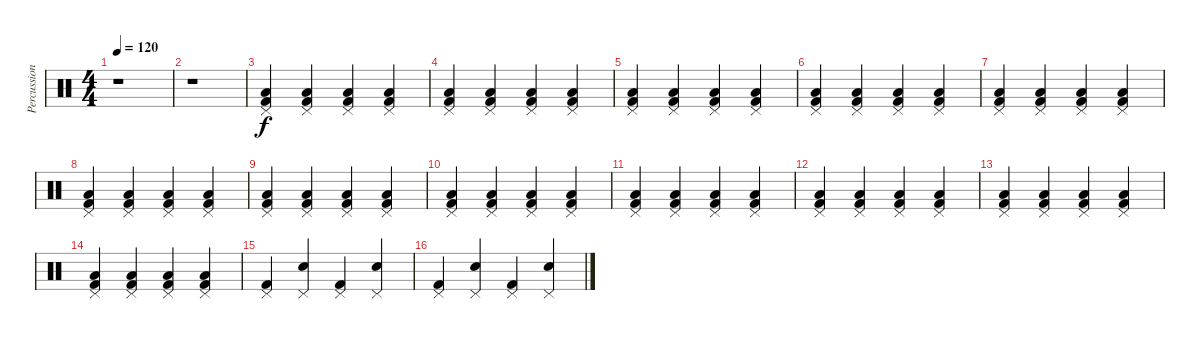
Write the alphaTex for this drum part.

\track ("Percussions" "Percussion") {instrument percussion}
\staff {score}
\articulation defaults
\ts (4 4)
\tempo 120
\clef neutral
\ks c
r.1{dy f} |
r.1 |
("Pedal Hi-Hat (hit)" "Low Floor Tom (hit)" "Kick (hit) 2").4 ("Pedal Hi-Hat (hit)" "Low Floor Tom (hit)" "Kick (hit) 2").4 ("Pedal Hi-Hat (hit)" "Low Floor Tom (hit)" "Kick (hit) 2").4 ("Pedal Hi-Hat (hit)" "Low Floor Tom (hit)" "Kick (hit) 2").4 |
("Pedal Hi-Hat (hit)" "Low Floor Tom (hit)" "Kick (hit) 2").4 ("Pedal Hi-Hat (hit)" "Low Floor Tom (hit)" "Kick (hit) 2").4 ("Pedal Hi-Hat (hit)" "Low Floor Tom (hit)" "Kick (hit) 2").4 ("Pedal Hi-Hat (hit)" "Low Floor Tom (hit)" "Kick (hit) 2").4 |
("Pedal Hi-Hat (hit)" "Low Floor Tom (hit)" "Kick (hit) 2").4 ("Pedal Hi-Hat (hit)" "Low Floor Tom (hit)" "Kick (hit) 2").4 ("Pedal Hi-Hat (hit)" "Low Floor Tom (hit)" "Kick (hit) 2").4 ("Pedal Hi-Hat (hit)" "Low Floor Tom (hit)" "Kick (hit) 2").4 |
("Pedal Hi-Hat (hit)" "Low Floor Tom (hit)" "Kick (hit) 2").4 ("Pedal Hi-Hat (hit)" "Low Floor Tom (hit)" "Kick (hit) 2").4 ("Pedal Hi-Hat (hit)" "Low Floor Tom (hit)" "Kick (hit) 2").4 ("Pedal Hi-Hat (hit)" "Low Floor Tom (hit)" "Kick (hit) 2").4 |
("Pedal Hi-Hat (hit)" "Low Floor Tom (hit)" "Kick (hit) 2").4 ("Pedal Hi-Hat (hit)" "Low Floor Tom (hit)" "Kick (hit) 2").4 ("Pedal Hi-Hat (hit)" "Low Floor Tom (hit)" "Kick (hit) 2").4 ("Pedal Hi-Hat (hit)" "Low Floor Tom (hit)" "Kick (hit) 2").4 |
("Pedal Hi-Hat (hit)" "Low Floor Tom (hit)" "Kick (hit) 2").4 ("Pedal Hi-Hat (hit)" "Low Floor Tom (hit)" "Kick (hit) 2").4 ("Pedal Hi-Hat (hit)" "Low Floor Tom (hit)" "Kick (hit) 2").4 ("Pedal Hi-Hat (hit)" "Low Floor Tom (hit)" "Kick (hit) 2").4 |
("Pedal Hi-Hat (hit)" "Low Floor Tom (hit)" "Kick (hit) 2").4 ("Pedal Hi-Hat (hit)" "Low Floor Tom (hit)" "Kick (hit) 2").4 ("Pedal Hi-Hat (hit)" "Low Floor Tom (hit)" "Kick (hit) 2").4 ("Pedal Hi-Hat (hit)" "Low Floor Tom (hit)" "Kick (hit) 2").4 |
("Pedal Hi-Hat (hit)" "Low Floor Tom (hit)" "Kick (hit) 2").4 ("Pedal Hi-Hat (hit)" "Low Floor Tom (hit)" "Kick (hit) 2").4 ("Pedal Hi-Hat (hit)" "Low Floor Tom (hit)" "Kick (hit) 2").4 ("Pedal Hi-Hat (hit)" "Low Floor Tom (hit)" "Kick (hit) 2").4 |
("Pedal Hi-Hat (hit)" "Low Floor Tom (hit)" "Kick (hit) 2").4 ("Pedal Hi-Hat (hit)" "Low Floor Tom (hit)" "Kick (hit) 2").4 ("Pedal Hi-Hat (hit)" "Low Floor Tom (hit)" "Kick (hit) 2").4 ("Pedal Hi-Hat (hit)" "Low Floor Tom (hit)" "Kick (hit) 2").4 |
("Pedal Hi-Hat (hit)" "Low Floor Tom (hit)" "Kick (hit) 2").4 ("Pedal Hi-Hat (hit)" "Low Floor Tom (hit)" "Kick (hit) 2").4 ("Pedal Hi-Hat (hit)" "Low Floor Tom (hit)" "Kick (hit) 2").4 ("Pedal Hi-Hat (hit)" "Low Floor Tom (hit)" "Kick (hit) 2").4 |
("Pedal Hi-Hat (hit)" "Low Floor Tom (hit)" "Kick (hit) 2").4 ("Pedal Hi-Hat (hit)" "Low Floor Tom (hit)" "Kick (hit) 2").4 ("Pedal Hi-Hat (hit)" "Low Floor Tom (hit)" "Kick (hit) 2").4 ("Pedal Hi-Hat (hit)" "Low Floor Tom (hit)" "Kick (hit) 2").4 |
("Pedal Hi-Hat (hit)" "Low Floor Tom (hit)" "Kick (hit) 2").4 ("Pedal Hi-Hat (hit)" "Low Floor Tom (hit)" "Kick (hit) 2").4 ("Pedal Hi-Hat (hit)" "Low Floor Tom (hit)" "Kick (hit) 2").4 ("Pedal Hi-Hat (hit)" "Low Floor Tom (hit)" "Kick (hit) 2").4 |
("Pedal Hi-Hat (hit)" "Kick (hit) 2").4 ("Pedal Hi-Hat (hit)" "Snare (hit) 2").4 ("Pedal Hi-Hat (hit)" "Kick (hit) 2").4 ("Pedal Hi-Hat (hit)" "Snare (hit) 2").4 |
("Pedal Hi-Hat (hit)" "Kick (hit) 2").4 ("Pedal Hi-Hat (hit)" "Snare (hit) 2").4 ("Pedal Hi-Hat (hit)" "Kick (hit) 2").4 ("Pedal Hi-Hat (hit)" "Snare (hit) 2").4
